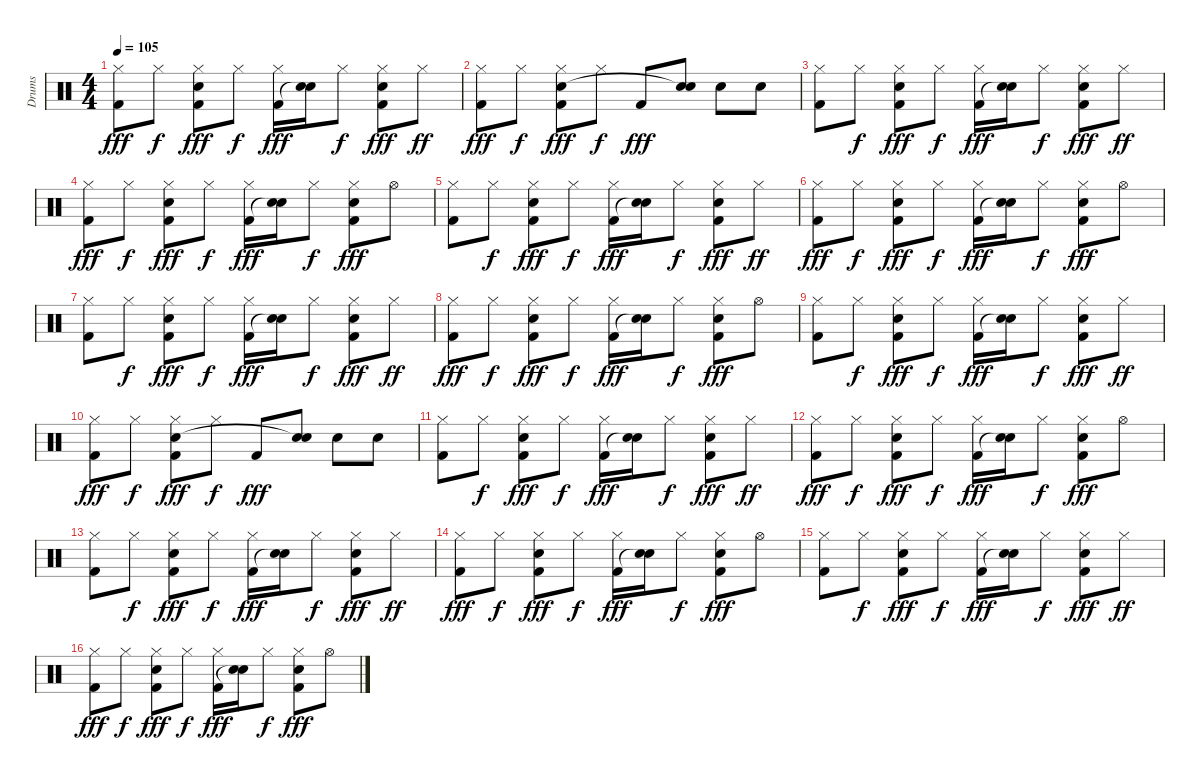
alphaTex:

\track ("Drums" "Drums") {instrument percussion}
\staff {score}
\articulation defaults
\ts (4 4)
\tempo 105
\clef neutral
\ks c
("Hi-Hat (closed)" "Kick (hit) 2").8{dy fff} "Hi-Hat (closed)".8{dy f} ("Hi-Hat (closed)" "Electric Snare (hit)" "Kick (hit) 2").8{dy fff} "Hi-Hat (closed)".8{dy f} ("Hi-Hat (closed)" "Kick (hit) 2").16{dy fff} ("Electric Snare (hit)" "Snare (hit)"{t}).16 "Hi-Hat (closed)".8{dy f} ("Hi-Hat (closed)" "Electric Snare (hit)" "Kick (hit) 2").8{dy fff} "Hi-Hat (closed)".8{dy ff} |
("Hi-Hat (closed)" "Kick (hit) 2").8{dy fff} "Hi-Hat (closed)".8{dy f} ("Hi-Hat (closed)" "Electric Snare (hit)" "Kick (hit) 2").8{dy fff} "Hi-Hat (closed)".8{dy f} "Kick (hit) 2".8{dy fff} ("Electric Snare (hit)" "Snare (hit)"{t}).8 "Electric Snare (hit)".8 "Electric Snare (hit)".8 |
("Hi-Hat (closed)" "Kick (hit) 2").8 "Hi-Hat (closed)".8{dy f} ("Hi-Hat (closed)" "Electric Snare (hit)" "Kick (hit) 2").8{dy fff} "Hi-Hat (closed)".8{dy f} ("Hi-Hat (closed)" "Kick (hit) 2").16{dy fff} ("Electric Snare (hit)" "Snare (hit)"{t}).16 "Hi-Hat (closed)".8{dy f} ("Hi-Hat (closed)" "Electric Snare (hit)" "Kick (hit) 2").8{dy fff} "Hi-Hat (closed)".8{dy ff} |
("Hi-Hat (closed)" "Kick (hit) 2").8{dy fff} "Hi-Hat (closed)".8{dy f} ("Hi-Hat (closed)" "Electric Snare (hit)" "Kick (hit) 2").8{dy fff} "Hi-Hat (closed)".8{dy f} ("Hi-Hat (closed)" "Kick (hit) 2").16{dy fff} ("Electric Snare (hit)" "Snare (hit)"{t}).16 "Hi-Hat (closed)".8{dy f} ("Hi-Hat (closed)" "Electric Snare (hit)" "Kick (hit) 2").8{dy fff} "Hi-Hat (open)".8 |
("Hi-Hat (closed)" "Kick (hit) 2").8 "Hi-Hat (closed)".8{dy f} ("Hi-Hat (closed)" "Electric Snare (hit)" "Kick (hit) 2").8{dy fff} "Hi-Hat (closed)".8{dy f} ("Hi-Hat (closed)" "Kick (hit) 2").16{dy fff} ("Electric Snare (hit)" "Snare (hit)"{t}).16 "Hi-Hat (closed)".8{dy f} ("Hi-Hat (closed)" "Electric Snare (hit)" "Kick (hit) 2").8{dy fff} "Hi-Hat (closed)".8{dy ff} |
("Hi-Hat (closed)" "Kick (hit) 2").8{dy fff} "Hi-Hat (closed)".8{dy f} ("Hi-Hat (closed)" "Electric Snare (hit)" "Kick (hit) 2").8{dy fff} "Hi-Hat (closed)".8{dy f} ("Hi-Hat (closed)" "Kick (hit) 2").16{dy fff} ("Electric Snare (hit)" "Snare (hit)"{t}).16 "Hi-Hat (closed)".8{dy f} ("Hi-Hat (closed)" "Electric Snare (hit)" "Kick (hit) 2").8{dy fff} "Hi-Hat (open)".8 |
("Hi-Hat (closed)" "Kick (hit) 2").8 "Hi-Hat (closed)".8{dy f} ("Hi-Hat (closed)" "Electric Snare (hit)" "Kick (hit) 2").8{dy fff} "Hi-Hat (closed)".8{dy f} ("Hi-Hat (closed)" "Kick (hit) 2").16{dy fff} ("Electric Snare (hit)" "Snare (hit)"{t}).16 "Hi-Hat (closed)".8{dy f} ("Hi-Hat (closed)" "Electric Snare (hit)" "Kick (hit) 2").8{dy fff} "Hi-Hat (closed)".8{dy ff} |
("Hi-Hat (closed)" "Kick (hit) 2").8{dy fff} "Hi-Hat (closed)".8{dy f} ("Hi-Hat (closed)" "Electric Snare (hit)" "Kick (hit) 2").8{dy fff} "Hi-Hat (closed)".8{dy f} ("Hi-Hat (closed)" "Kick (hit) 2").16{dy fff} ("Electric Snare (hit)" "Snare (hit)"{t}).16 "Hi-Hat (closed)".8{dy f} ("Hi-Hat (closed)" "Electric Snare (hit)" "Kick (hit) 2").8{dy fff} "Hi-Hat (open)".8 |
("Hi-Hat (closed)" "Kick (hit) 2").8 "Hi-Hat (closed)".8{dy f} ("Hi-Hat (closed)" "Electric Snare (hit)" "Kick (hit) 2").8{dy fff} "Hi-Hat (closed)".8{dy f} ("Hi-Hat (closed)" "Kick (hit) 2").16{dy fff} ("Electric Snare (hit)" "Snare (hit)"{t}).16 "Hi-Hat (closed)".8{dy f} ("Hi-Hat (closed)" "Electric Snare (hit)" "Kick (hit) 2").8{dy fff} "Hi-Hat (closed)".8{dy ff} |
("Hi-Hat (closed)" "Kick (hit) 2").8{dy fff} "Hi-Hat (closed)".8{dy f} ("Hi-Hat (closed)" "Electric Snare (hit)" "Kick (hit) 2").8{dy fff} "Hi-Hat (closed)".8{dy f} "Kick (hit) 2".8{dy fff} ("Electric Snare (hit)" "Snare (hit)"{t}).8 "Electric Snare (hit)".8 "Electric Snare (hit)".8 |
("Hi-Hat (closed)" "Kick (hit) 2").8 "Hi-Hat (closed)".8{dy f} ("Hi-Hat (closed)" "Electric Snare (hit)" "Kick (hit) 2").8{dy fff} "Hi-Hat (closed)".8{dy f} ("Hi-Hat (closed)" "Kick (hit) 2").16{dy fff} ("Electric Snare (hit)" "Snare (hit)"{t}).16 "Hi-Hat (closed)".8{dy f} ("Hi-Hat (closed)" "Electric Snare (hit)" "Kick (hit) 2").8{dy fff} "Hi-Hat (closed)".8{dy ff} |
("Hi-Hat (closed)" "Kick (hit) 2").8{dy fff} "Hi-Hat (closed)".8{dy f} ("Hi-Hat (closed)" "Electric Snare (hit)" "Kick (hit) 2").8{dy fff} "Hi-Hat (closed)".8{dy f} ("Hi-Hat (closed)" "Kick (hit) 2").16{dy fff} ("Electric Snare (hit)" "Snare (hit)"{t}).16 "Hi-Hat (closed)".8{dy f} ("Hi-Hat (closed)" "Electric Snare (hit)" "Kick (hit) 2").8{dy fff} "Hi-Hat (open)".8 |
("Hi-Hat (closed)" "Kick (hit) 2").8 "Hi-Hat (closed)".8{dy f} ("Hi-Hat (closed)" "Electric Snare (hit)" "Kick (hit) 2").8{dy fff} "Hi-Hat (closed)".8{dy f} ("Hi-Hat (closed)" "Kick (hit) 2").16{dy fff} ("Electric Snare (hit)" "Snare (hit)"{t}).16 "Hi-Hat (closed)".8{dy f} ("Hi-Hat (closed)" "Electric Snare (hit)" "Kick (hit) 2").8{dy fff} "Hi-Hat (closed)".8{dy ff} |
("Hi-Hat (closed)" "Kick (hit) 2").8{dy fff} "Hi-Hat (closed)".8{dy f} ("Hi-Hat (closed)" "Electric Snare (hit)" "Kick (hit) 2").8{dy fff} "Hi-Hat (closed)".8{dy f} ("Hi-Hat (closed)" "Kick (hit) 2").16{dy fff} ("Electric Snare (hit)" "Snare (hit)"{t}).16 "Hi-Hat (closed)".8{dy f} ("Hi-Hat (closed)" "Electric Snare (hit)" "Kick (hit) 2").8{dy fff} "Hi-Hat (open)".8 |
("Hi-Hat (closed)" "Kick (hit) 2").8 "Hi-Hat (closed)".8{dy f} ("Hi-Hat (closed)" "Electric Snare (hit)" "Kick (hit) 2").8{dy fff} "Hi-Hat (closed)".8{dy f} ("Hi-Hat (closed)" "Kick (hit) 2").16{dy fff} ("Electric Snare (hit)" "Snare (hit)"{t}).16 "Hi-Hat (closed)".8{dy f} ("Hi-Hat (closed)" "Electric Snare (hit)" "Kick (hit) 2").8{dy fff} "Hi-Hat (closed)".8{dy ff} |
("Hi-Hat (closed)" "Kick (hit) 2").8{dy fff} "Hi-Hat (closed)".8{dy f} ("Hi-Hat (closed)" "Electric Snare (hit)" "Kick (hit) 2").8{dy fff} "Hi-Hat (closed)".8{dy f} ("Hi-Hat (closed)" "Kick (hit) 2").16{dy fff} ("Electric Snare (hit)" "Snare (hit)"{t}).16 "Hi-Hat (closed)".8{dy f} ("Hi-Hat (closed)" "Electric Snare (hit)" "Kick (hit) 2").8{dy fff} "Hi-Hat (open)".8
